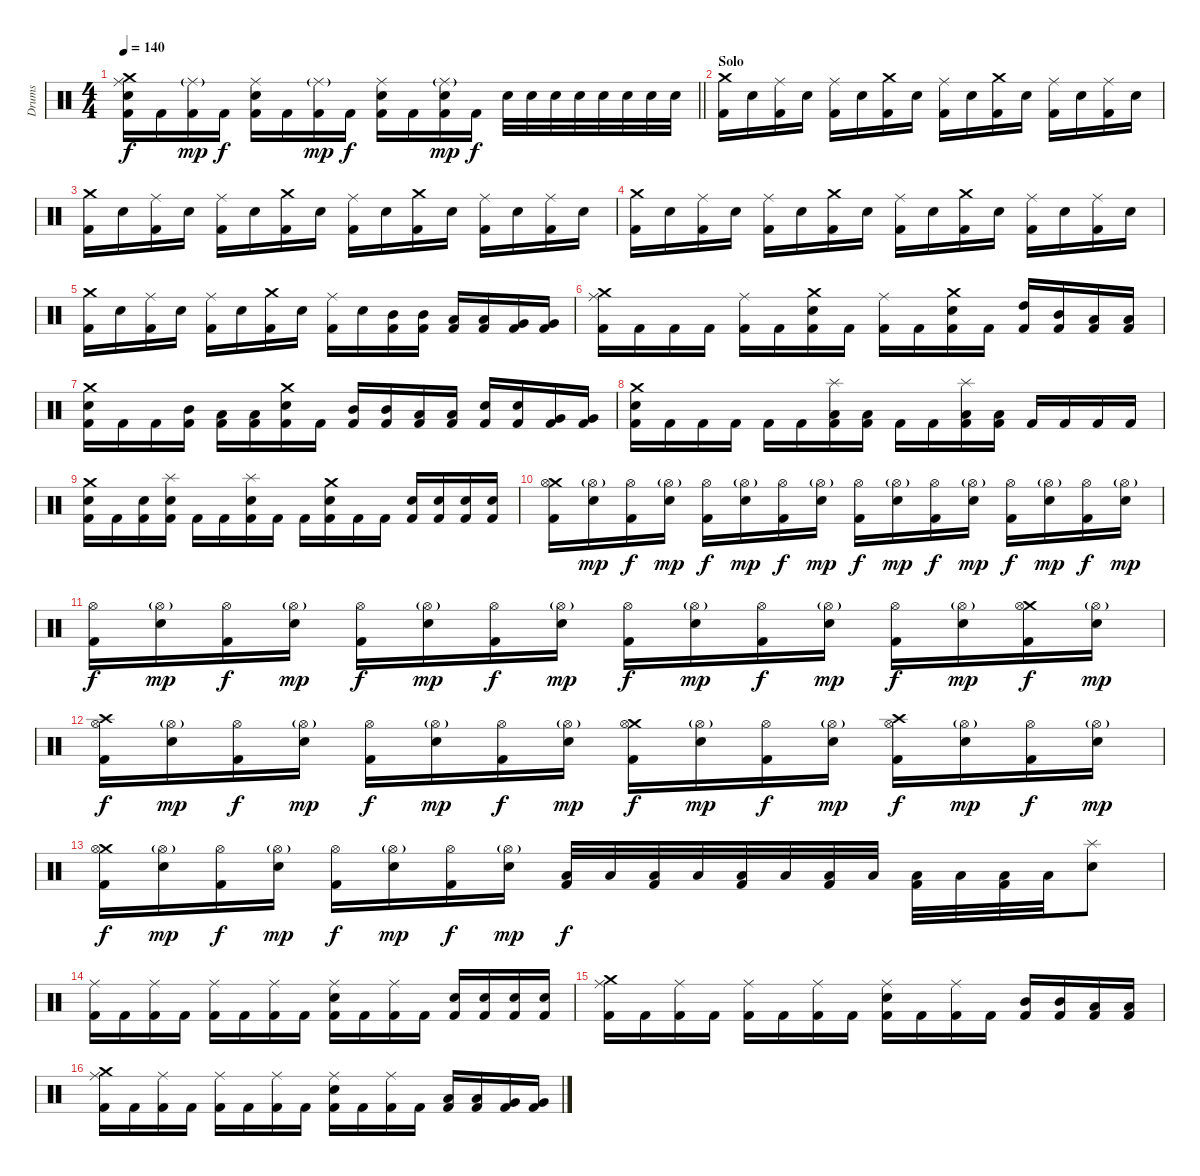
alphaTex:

\track ("Drums" "Drums") {instrument percussion}
\staff {score}
\articulation defaults
\ts (4 4)
\tempo 140
\clef neutral
\barLineRight lightlight
\ks c
("Crash medium (hit)" "Ride (middle)" "Electric Snare (hit)" "Kick (hit) 2").16{dy f} "Kick (hit) 2".16 ("Ride (middle)"{g} "Kick (hit) 2").16{dy mp} "Kick (hit) 2".16{dy f} ("Ride (middle)" "Electric Snare (hit)" "Kick (hit) 2").16 "Kick (hit) 2".16 ("Ride (middle)"{g} "Kick (hit) 2").16{dy mp} "Kick (hit) 2".16{dy f} ("Ride (middle)" "Electric Snare (hit)" "Kick (hit) 2").16 "Kick (hit) 2".16 ("Ride (middle)"{g} "Electric Snare (hit)" "Kick (hit) 2").16{dy mp} "Kick (hit) 2".16{dy f} "Electric Snare (hit)".32 "Electric Snare (hit)".32 "Electric Snare (hit)".32 "Electric Snare (hit)".32 "Electric Snare (hit)".32 "Electric Snare (hit)".32 "Electric Snare (hit)".32 "Electric Snare (hit)".32 |
\section ("" "Solo")
("Crash medium (hit)" "Kick (hit) 2").16 "Electric Snare (hit)".16 ("Ride (middle)" "Kick (hit) 2").16 "Electric Snare (hit)".16 ("Ride (middle)" "Kick (hit) 2").16 "Electric Snare (hit)".16 ("Crash medium (hit)" "Kick (hit) 2").16 "Electric Snare (hit)".16 ("Ride (middle)" "Kick (hit) 2").16 "Electric Snare (hit)".16 ("Crash medium (hit)" "Kick (hit) 2").16 "Electric Snare (hit)".16 ("Ride (middle)" "Kick (hit) 2").16 "Electric Snare (hit)".16 ("Ride (middle)" "Kick (hit) 2").16 "Electric Snare (hit)".16 |
("Crash medium (hit)" "Kick (hit) 2").16 "Electric Snare (hit)".16 ("Ride (middle)" "Kick (hit) 2").16 "Electric Snare (hit)".16 ("Ride (middle)" "Kick (hit) 2").16 "Electric Snare (hit)".16 ("Crash medium (hit)" "Kick (hit) 2").16 "Electric Snare (hit)".16 ("Ride (middle)" "Kick (hit) 2").16 "Electric Snare (hit)".16 ("Crash medium (hit)" "Kick (hit) 2").16 "Electric Snare (hit)".16 ("Ride (middle)" "Kick (hit) 2").16 "Electric Snare (hit)".16 ("Ride (middle)" "Kick (hit) 2").16 "Electric Snare (hit)".16 |
("Crash medium (hit)" "Kick (hit) 2").16 "Electric Snare (hit)".16 ("Ride (middle)" "Kick (hit) 2").16 "Electric Snare (hit)".16 ("Ride (middle)" "Kick (hit) 2").16 "Electric Snare (hit)".16 ("Crash medium (hit)" "Kick (hit) 2").16 "Electric Snare (hit)".16 ("Ride (middle)" "Kick (hit) 2").16 "Electric Snare (hit)".16 ("Crash medium (hit)" "Kick (hit) 2").16 "Electric Snare (hit)".16 ("Ride (middle)" "Kick (hit) 2").16 "Electric Snare (hit)".16 ("Ride (middle)" "Kick (hit) 2").16 "Electric Snare (hit)".16 |
("Crash medium (hit)" "Kick (hit) 2").16 "Electric Snare (hit)".16 ("Ride (middle)" "Kick (hit) 2").16 "Electric Snare (hit)".16 ("Ride (middle)" "Kick (hit) 2").16 "Electric Snare (hit)".16 ("Crash medium (hit)" "Kick (hit) 2").16 "Electric Snare (hit)".16 ("Ride (middle)" "Kick (hit) 2").16 "Electric Snare (hit)".16 ("Mid Tom (hit)" "Kick (hit) 2").16 ("Mid Tom (hit)" "Kick (hit) 2").16 ("Low Tom (hit)" "Kick (hit) 2").16 ("Low Tom (hit)" "Kick (hit) 2").16 ("Very Low Tom (hit)" "Kick (hit) 2").16 ("Very Low Tom (hit)" "Kick (hit) 2").16 |
("Crash medium (hit)" "Ride (middle)" "Kick (hit) 2").16 "Kick (hit) 2".16 "Kick (hit) 2".16 "Kick (hit) 2".16 ("Ride (middle)" "Kick (hit) 2").16 "Kick (hit) 2".16 ("Crash medium (hit)" "Electric Snare (hit)" "Kick (hit) 2").16 "Kick (hit) 2".16 ("Ride (middle)" "Kick (hit) 2").16 "Kick (hit) 2".16 ("Crash medium (hit)" "Electric Snare (hit)" "Kick (hit) 2").16 "Kick (hit) 2".16 ("High Tom (hit)" "Kick (hit) 2").16 ("Mid Tom (hit)" "Kick (hit) 2").16 ("Low Tom (hit)" "Kick (hit) 2").16 ("Low Tom (hit)" "Kick (hit) 2").16 |
("Crash medium (hit)" "Electric Snare (hit)" "Kick (hit) 2").16 "Kick (hit) 2".16 "Kick (hit) 2".16 ("Mid Tom (hit)" "Kick (hit) 2").16 ("Low Tom (hit)" "Kick (hit) 2").16 ("Low Tom (hit)" "Kick (hit) 2").16 ("Crash medium (hit)" "Electric Snare (hit)" "Kick (hit) 2").16 "Kick (hit) 2".16 ("Mid Tom (hit)" "Kick (hit) 2").16 ("Mid Tom (hit)" "Kick (hit) 2").16 ("Low Tom (hit)" "Kick (hit) 2").16 ("Low Tom (hit)" "Kick (hit) 2").16 ("Electric Snare (hit)" "Kick (hit) 2").16 ("Electric Snare (hit)" "Kick (hit) 2").16 ("Very Low Tom (hit)" "Kick (hit) 2").16 ("Very Low Tom (hit)" "Kick (hit) 2").16 |
("Crash medium (hit)" "Electric Snare (hit)" "Kick (hit) 2").16 "Kick (hit) 2".16 "Kick (hit) 2".16 "Kick (hit) 2".16 "Kick (hit) 2".16 "Kick (hit) 2".16 ("Splash (hit)" "Low Tom (hit)" "Kick (hit) 2").16 ("Low Tom (hit)" "Kick (hit) 2").16 "Kick (hit) 2".16 "Kick (hit) 2".16 ("Splash (hit)" "Low Tom (hit)" "Kick (hit) 2").16 ("Low Tom (hit)" "Kick (hit) 2").16 "Kick (hit) 2".16 "Kick (hit) 2".16 "Kick (hit) 2".16 "Kick (hit) 2".16 |
("Crash medium (hit)" "Electric Snare (hit)" "Kick (hit) 2").16 "Kick (hit) 2".16 ("Electric Snare (hit)" "Kick (hit) 2").16 ("Splash (hit)" "Electric Snare (hit)" "Kick (hit) 2").16 "Kick (hit) 2".16 "Kick (hit) 2".16 ("Splash (hit)" "Electric Snare (hit)" "Kick (hit) 2").16 "Kick (hit) 2".16 "Kick (hit) 2".16 ("Crash medium (hit)" "Electric Snare (hit)" "Kick (hit) 2").16 "Kick (hit) 2".16 "Kick (hit) 2".16 ("Electric Snare (hit)" "Kick (hit) 2").16 ("Electric Snare (hit)" "Kick (hit) 2").16 ("Electric Snare (hit)" "Kick (hit) 2").16 ("Electric Snare (hit)" "Kick (hit) 2").16 |
("Crash medium (hit)" "Hi-Hat (open)" "Kick (hit) 2").16 ("Hi-Hat (open)"{g} "Electric Snare (hit)").16{dy mp} ("Hi-Hat (open)" "Kick (hit) 2").16{dy f} ("Hi-Hat (open)"{g} "Electric Snare (hit)").16{dy mp} ("Hi-Hat (open)" "Kick (hit) 2").16{dy f} ("Hi-Hat (open)"{g} "Electric Snare (hit)").16{dy mp} ("Hi-Hat (open)" "Kick (hit) 2").16{dy f} ("Hi-Hat (open)"{g} "Electric Snare (hit)").16{dy mp} ("Hi-Hat (open)" "Kick (hit) 2").16{dy f} ("Hi-Hat (open)"{g} "Electric Snare (hit)").16{dy mp} ("Hi-Hat (open)" "Kick (hit) 2").16{dy f} ("Hi-Hat (open)"{g} "Electric Snare (hit)").16{dy mp} ("Hi-Hat (open)" "Kick (hit) 2").16{dy f} ("Hi-Hat (open)"{g} "Electric Snare (hit)").16{dy mp} ("Hi-Hat (open)" "Kick (hit) 2").16{dy f} ("Hi-Hat (open)"{g} "Electric Snare (hit)").16{dy mp} |
("Hi-Hat (open)" "Kick (hit) 2").16{dy f} ("Hi-Hat (open)"{g} "Electric Snare (hit)").16{dy mp} ("Hi-Hat (open)" "Kick (hit) 2").16{dy f} ("Hi-Hat (open)"{g} "Electric Snare (hit)").16{dy mp} ("Hi-Hat (open)" "Kick (hit) 2").16{dy f} ("Hi-Hat (open)"{g} "Electric Snare (hit)").16{dy mp} ("Hi-Hat (open)" "Kick (hit) 2").16{dy f} ("Hi-Hat (open)"{g} "Electric Snare (hit)").16{dy mp} ("Hi-Hat (open)" "Kick (hit) 2").16{dy f} ("Hi-Hat (open)"{g} "Electric Snare (hit)").16{dy mp} ("Hi-Hat (open)" "Kick (hit) 2").16{dy f} ("Hi-Hat (open)"{g} "Electric Snare (hit)").16{dy mp} ("Hi-Hat (open)" "Kick (hit) 2").16{dy f} ("Hi-Hat (open)"{g} "Electric Snare (hit)").16{dy mp} ("Crash medium (hit)" "Hi-Hat (open)" "Kick (hit) 2").16{dy f} ("Hi-Hat (open)"{g} "Electric Snare (hit)").16{dy mp} |
("Crash high (hit)" "Hi-Hat (open)" "Kick (hit) 2").16{dy f} ("Hi-Hat (open)"{g} "Electric Snare (hit)").16{dy mp} ("Hi-Hat (open)" "Kick (hit) 2").16{dy f} ("Hi-Hat (open)"{g} "Electric Snare (hit)").16{dy mp} ("Hi-Hat (open)" "Kick (hit) 2").16{dy f} ("Hi-Hat (open)"{g} "Electric Snare (hit)").16{dy mp} ("Hi-Hat (open)" "Kick (hit) 2").16{dy f} ("Hi-Hat (open)"{g} "Electric Snare (hit)").16{dy mp} ("Crash medium (hit)" "Hi-Hat (open)" "Kick (hit) 2").16{dy f} ("Hi-Hat (open)"{g} "Electric Snare (hit)").16{dy mp} ("Hi-Hat (open)" "Kick (hit) 2").16{dy f} ("Hi-Hat (open)"{g} "Electric Snare (hit)").16{dy mp} ("Crash high (hit)" "Hi-Hat (open)" "Kick (hit) 2").16{dy f} ("Hi-Hat (open)"{g} "Electric Snare (hit)").16{dy mp} ("Hi-Hat (open)" "Kick (hit) 2").16{dy f} ("Hi-Hat (open)"{g} "Electric Snare (hit)").16{dy mp} |
("Crash medium (hit)" "Hi-Hat (open)" "Kick (hit) 2").16{dy f} ("Hi-Hat (open)"{g} "Electric Snare (hit)").16{dy mp} ("Hi-Hat (open)" "Kick (hit) 2").16{dy f} ("Hi-Hat (open)"{g} "Electric Snare (hit)").16{dy mp} ("Hi-Hat (open)" "Kick (hit) 2").16{dy f} ("Hi-Hat (open)"{g} "Electric Snare (hit)").16{dy mp} ("Hi-Hat (open)" "Kick (hit) 2").16{dy f} ("Hi-Hat (open)"{g} "Electric Snare (hit)").16{dy mp} ("Low Tom (hit)" "Kick (hit) 2").32{dy f} "Low Tom (hit)".32 ("Low Tom (hit)" "Kick (hit) 2").32 "Low Tom (hit)".32 ("Low Tom (hit)" "Kick (hit) 2").32 "Low Tom (hit)".32 ("Low Tom (hit)" "Kick (hit) 2").32 "Low Tom (hit)".32 ("Low Tom (hit)" "Kick (hit) 2").32 "Low Tom (hit)".32 ("Low Tom (hit)" "Kick (hit) 2").32 "Low Tom (hit)".32 ("Splash (hit)" "Electric Snare (hit)").8 |
("Ride (middle)" "Kick (hit) 2").16 "Kick (hit) 2".16 ("Ride (middle)" "Kick (hit) 2").16 "Kick (hit) 2".16 ("Ride (middle)" "Kick (hit) 2").16 "Kick (hit) 2".16 ("Ride (middle)" "Kick (hit) 2").16 "Kick (hit) 2".16 ("Ride (middle)" "Electric Snare (hit)" "Kick (hit) 2").16 "Kick (hit) 2".16 ("Ride (middle)" "Kick (hit) 2").16 "Kick (hit) 2".16 ("Electric Snare (hit)" "Kick (hit) 2").16 ("Electric Snare (hit)" "Kick (hit) 2").16 ("Electric Snare (hit)" "Kick (hit) 2").16 ("Electric Snare (hit)" "Kick (hit) 2").16 |
("Crash medium (hit)" "Ride (middle)" "Kick (hit) 2").16 "Kick (hit) 2".16 ("Ride (middle)" "Kick (hit) 2").16 "Kick (hit) 2".16 ("Ride (middle)" "Kick (hit) 2").16 "Kick (hit) 2".16 ("Ride (middle)" "Kick (hit) 2").16 "Kick (hit) 2".16 ("Ride (middle)" "Electric Snare (hit)" "Kick (hit) 2").16 "Kick (hit) 2".16 ("Ride (middle)" "Kick (hit) 2").16 "Kick (hit) 2".16 ("Mid Tom (hit)" "Kick (hit) 2").16 ("Mid Tom (hit)" "Kick (hit) 2").16 ("Low Tom (hit)" "Kick (hit) 2").16 ("Low Tom (hit)" "Kick (hit) 2").16 |
("Crash medium (hit)" "Ride (middle)" "Kick (hit) 2").16 "Kick (hit) 2".16 ("Ride (middle)" "Kick (hit) 2").16 "Kick (hit) 2".16 ("Ride (middle)" "Kick (hit) 2").16 "Kick (hit) 2".16 ("Ride (middle)" "Kick (hit) 2").16 "Kick (hit) 2".16 ("Ride (middle)" "Electric Snare (hit)" "Kick (hit) 2").16 "Kick (hit) 2".16 ("Ride (middle)" "Kick (hit) 2").16 "Kick (hit) 2".16 ("Low Tom (hit)" "Kick (hit) 2").16 ("Low Tom (hit)" "Kick (hit) 2").16 ("Very Low Tom (hit)" "Kick (hit) 2").16 ("Very Low Tom (hit)" "Kick (hit) 2").16
